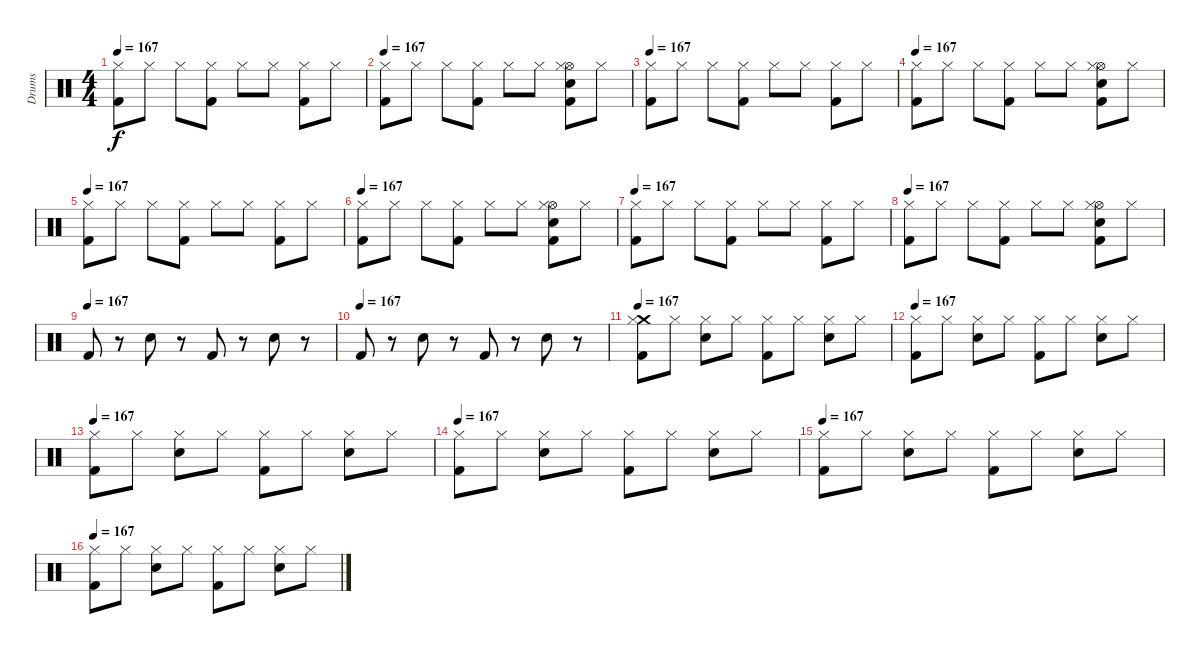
\track ("Drums" "Drums") {instrument percussion}
\staff {score}
\articulation defaults
\ts (4 4)
\tempo 167
\clef neutral
\ks c
("Kick (hit) 2" "Hi-Hat (closed)").8{dy f} "Hi-Hat (closed)".8 "Hi-Hat (closed)".8 ("Hi-Hat (closed)" "Kick (hit) 2").8 "Hi-Hat (closed)".8 "Hi-Hat (closed)".8 ("Hi-Hat (closed)" "Kick (hit) 2").8 "Hi-Hat (closed)".8 |
\tempo 167
("Kick (hit) 2" "Hi-Hat (closed)").8 "Hi-Hat (closed)".8 "Hi-Hat (closed)".8 ("Hi-Hat (closed)" "Kick (hit) 2").8 "Hi-Hat (closed)".8 "Hi-Hat (closed)".8 ("Hi-Hat (open)" "Electric Snare (hit)" "Hi-Hat (closed)" "Kick (hit) 2").8 "Hi-Hat (closed)".8 |
\tempo 167
("Kick (hit) 2" "Hi-Hat (closed)").8 "Hi-Hat (closed)".8 "Hi-Hat (closed)".8 ("Hi-Hat (closed)" "Kick (hit) 2").8 "Hi-Hat (closed)".8 "Hi-Hat (closed)".8 ("Hi-Hat (closed)" "Kick (hit) 2").8 "Hi-Hat (closed)".8 |
\tempo 167
("Kick (hit) 2" "Hi-Hat (closed)").8 "Hi-Hat (closed)".8 "Hi-Hat (closed)".8 ("Hi-Hat (closed)" "Kick (hit) 2").8 "Hi-Hat (closed)".8 "Hi-Hat (closed)".8 ("Hi-Hat (open)" "Electric Snare (hit)" "Hi-Hat (closed)" "Kick (hit) 2").8 "Hi-Hat (closed)".8 |
\tempo 167
("Kick (hit) 2" "Hi-Hat (closed)").8 "Hi-Hat (closed)".8 "Hi-Hat (closed)".8 ("Hi-Hat (closed)" "Kick (hit) 2").8 "Hi-Hat (closed)".8 "Hi-Hat (closed)".8 ("Hi-Hat (closed)" "Kick (hit) 2").8 "Hi-Hat (closed)".8 |
\tempo 167
("Kick (hit) 2" "Hi-Hat (closed)").8 "Hi-Hat (closed)".8 "Hi-Hat (closed)".8 ("Hi-Hat (closed)" "Kick (hit) 2").8 "Hi-Hat (closed)".8 "Hi-Hat (closed)".8 ("Hi-Hat (open)" "Electric Snare (hit)" "Hi-Hat (closed)" "Kick (hit) 2").8 "Hi-Hat (closed)".8 |
\tempo 167
("Kick (hit) 2" "Hi-Hat (closed)").8 "Hi-Hat (closed)".8 "Hi-Hat (closed)".8 ("Hi-Hat (closed)" "Kick (hit) 2").8 "Hi-Hat (closed)".8 "Hi-Hat (closed)".8 ("Hi-Hat (closed)" "Kick (hit) 2").8 "Hi-Hat (closed)".8 |
\tempo 167
("Kick (hit) 2" "Hi-Hat (closed)").8 "Hi-Hat (closed)".8 "Hi-Hat (closed)".8 ("Hi-Hat (closed)" "Kick (hit) 2").8 "Hi-Hat (closed)".8 "Hi-Hat (closed)".8 ("Hi-Hat (open)" "Electric Snare (hit)" "Hi-Hat (closed)" "Kick (hit) 2").8 "Hi-Hat (closed)".8 |
\tempo (167)
"Kick (hit) 2".8 r.8 "Electric Snare (hit)".8 r.8 "Kick (hit) 2".8 r.8 "Electric Snare (hit)".8 r.8 |
\tempo (167)
"Kick (hit) 2".8 r.8 "Electric Snare (hit)".8 r.8 "Kick (hit) 2".8 r.8 "Electric Snare (hit)".8 r.8 |
\tempo 167
("Kick (hit) 2" "Crash medium (hit)" "Hi-Hat (closed)").8 "Hi-Hat (closed)".8 ("Electric Snare (hit)" "Hi-Hat (closed)").8 "Hi-Hat (closed)".8 ("Kick (hit) 2" "Hi-Hat (closed)").8 "Hi-Hat (closed)".8 ("Electric Snare (hit)" "Hi-Hat (closed)").8 "Hi-Hat (closed)".8 |
\tempo 167
("Kick (hit) 2" "Hi-Hat (closed)").8 "Hi-Hat (closed)".8 ("Electric Snare (hit)" "Hi-Hat (closed)").8 "Hi-Hat (closed)".8 ("Kick (hit) 2" "Hi-Hat (closed)").8 "Hi-Hat (closed)".8 ("Electric Snare (hit)" "Hi-Hat (closed)").8 "Hi-Hat (closed)".8 |
\tempo 167
("Kick (hit) 2" "Hi-Hat (closed)").8 "Hi-Hat (closed)".8 ("Electric Snare (hit)" "Hi-Hat (closed)").8 "Hi-Hat (closed)".8 ("Kick (hit) 2" "Hi-Hat (closed)").8 "Hi-Hat (closed)".8 ("Electric Snare (hit)" "Hi-Hat (closed)").8 "Hi-Hat (closed)".8 |
\tempo 167
("Kick (hit) 2" "Hi-Hat (closed)").8 "Hi-Hat (closed)".8 ("Electric Snare (hit)" "Hi-Hat (closed)").8 "Hi-Hat (closed)".8 ("Kick (hit) 2" "Hi-Hat (closed)").8 "Hi-Hat (closed)".8 ("Electric Snare (hit)" "Hi-Hat (closed)").8 "Hi-Hat (closed)".8 |
\tempo 167
("Kick (hit) 2" "Hi-Hat (closed)").8 "Hi-Hat (closed)".8 ("Electric Snare (hit)" "Hi-Hat (closed)").8 "Hi-Hat (closed)".8 ("Kick (hit) 2" "Hi-Hat (closed)").8 "Hi-Hat (closed)".8 ("Electric Snare (hit)" "Hi-Hat (closed)").8 "Hi-Hat (closed)".8 |
\tempo 167
("Kick (hit) 2" "Hi-Hat (closed)").8 "Hi-Hat (closed)".8 ("Electric Snare (hit)" "Hi-Hat (closed)").8 "Hi-Hat (closed)".8 ("Kick (hit) 2" "Hi-Hat (closed)").8 "Hi-Hat (closed)".8 ("Electric Snare (hit)" "Hi-Hat (closed)").8 "Hi-Hat (closed)".8
